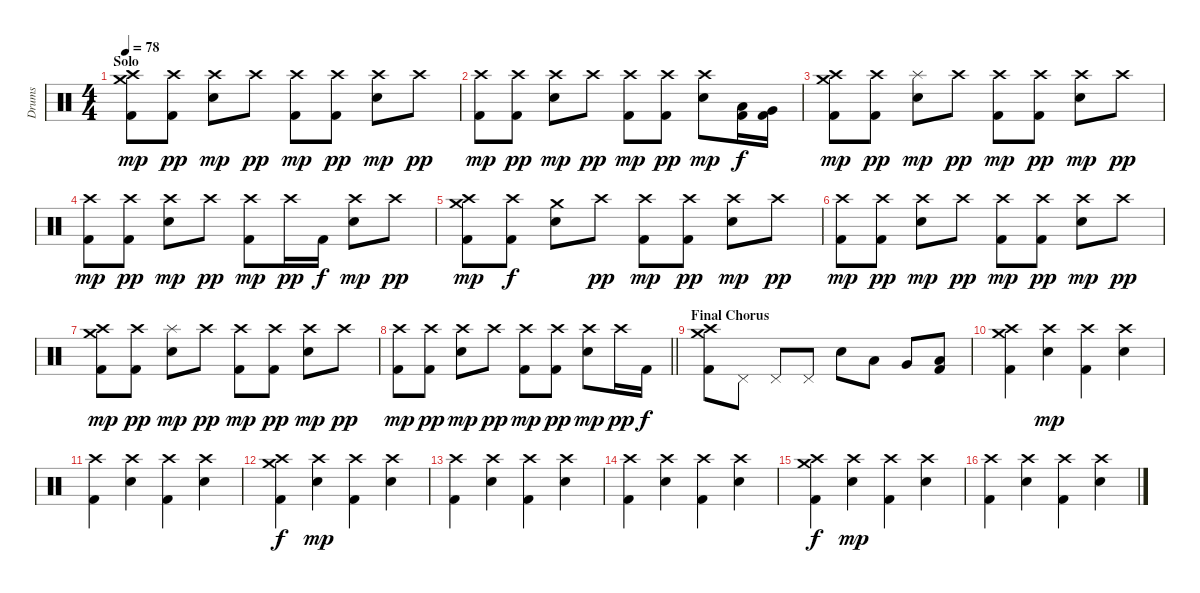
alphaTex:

\track ("Drums" "Drums") {instrument percussion}
\staff {score}
\articulation defaults
\ts (4 4)
\section ("" "Solo")
\tempo 78
\clef neutral
\ks c
("Kick (hit) 2" "Crash high (hit)" "Crash medium (hit)").8{dy mp} ("Kick (hit) 2" "Crash high (hit)").8{dy pp} ("Snare (hit) 2" "Crash high (hit)").8{dy mp} "Crash high (hit)".8{dy pp} ("Kick (hit) 2" "Crash high (hit)").8{dy mp} ("Kick (hit) 2" "Crash high (hit)").8{dy pp} ("Snare (hit) 2" "Crash high (hit)").8{dy mp} "Crash high (hit)".8{dy pp} |
("Kick (hit) 2" "Crash high (hit)").8{dy mp} ("Kick (hit) 2" "Crash high (hit)").8{dy pp} ("Snare (hit) 2" "Crash high (hit)").8{dy mp} "Crash high (hit)".8{dy pp} ("Kick (hit) 2" "Crash high (hit)").8{dy mp} ("Kick (hit) 2" "Crash high (hit)").8{dy pp} ("Snare (hit) 2" "Crash high (hit)").8{dy mp} ("Kick (hit) 2" "Low Tom (hit)").16{dy f} ("Kick (hit) 2" "Very Low Tom (hit)").16 |
("Kick (hit) 2" "Crash high (hit)" "Crash medium (hit)").8{dy mp} ("Kick (hit) 2" "Crash high (hit)").8{dy pp} ("Snare (hit) 2" "Splash (hit)").8{dy mp} "Crash high (hit)".8{dy pp} ("Kick (hit) 2" "Crash high (hit)").8{dy mp} ("Kick (hit) 2" "Crash high (hit)").8{dy pp} ("Snare (hit) 2" "Crash high (hit)").8{dy mp} "Crash high (hit)".8{dy pp} |
("Kick (hit) 2" "Crash high (hit)").8{dy mp} ("Kick (hit) 2" "Crash high (hit)").8{dy pp} ("Snare (hit) 2" "Crash high (hit)").8{dy mp} "Crash high (hit)".8{dy pp} ("Kick (hit) 2" "Crash high (hit)").8{dy mp} "Crash high (hit)".16{dy pp} "Kick (hit) 2".16{dy f} ("Snare (hit) 2" "Crash high (hit)").8{dy mp} "Crash high (hit)".8{dy pp} |
("Kick (hit) 2" "Crash high (hit)" "Crash medium (hit)").8{dy mp} ("Kick (hit) 2" "Crash high (hit)").8{dy f} ("Snare (hit) 2" "Crash medium (hit)").8 "Crash high (hit)".8{dy pp} ("Kick (hit) 2" "Crash high (hit)").8{dy mp} ("Kick (hit) 2" "Crash high (hit)").8{dy pp} ("Snare (hit) 2" "Crash high (hit)").8{dy mp} "Crash high (hit)".8{dy pp} |
("Kick (hit) 2" "Crash high (hit)").8{dy mp} ("Kick (hit) 2" "Crash high (hit)").8{dy pp} ("Snare (hit) 2" "Crash high (hit)").8{dy mp} "Crash high (hit)".8{dy pp} ("Kick (hit) 2" "Crash high (hit)").8{dy mp} ("Kick (hit) 2" "Crash high (hit)").8{dy pp} ("Snare (hit) 2" "Crash high (hit)").8{dy mp} "Crash high (hit)".8{dy pp} |
("Kick (hit) 2" "Crash high (hit)" "Crash medium (hit)").8{dy mp} ("Kick (hit) 2" "Crash high (hit)").8{dy pp} ("Snare (hit) 2" "Splash (hit)").8{dy mp} "Crash high (hit)".8{dy pp} ("Kick (hit) 2" "Crash high (hit)").8{dy mp} ("Kick (hit) 2" "Crash high (hit)").8{dy pp} ("Snare (hit) 2" "Crash high (hit)").8{dy mp} "Crash high (hit)".8{dy pp} |
\barLineRight lightlight
("Kick (hit) 2" "Crash high (hit)").8{dy mp} ("Kick (hit) 2" "Crash high (hit)").8{dy pp} ("Snare (hit) 2" "Crash high (hit)").8{dy mp} "Crash high (hit)".8{dy pp} ("Kick (hit) 2" "Crash high (hit)").8{dy mp} ("Kick (hit) 2" "Crash high (hit)").8{dy pp} ("Snare (hit) 2" "Crash high (hit)").8{dy mp} "Crash high (hit)".16{dy pp} "Kick (hit) 2".16{dy f} |
\section ("" "Final Chorus")
("Kick (hit) 2" "Crash medium (hit)" "Crash high (hit)").8 "Pedal Hi-Hat (hit)".8 "Pedal Hi-Hat (hit)".8 "Pedal Hi-Hat (hit)".8 "Snare (hit) 2".8 "Low Tom (hit)".8 "Very Low Tom (hit)".8 ("Kick (hit) 2" "Low Floor Tom (hit)").8 |
("Kick (hit) 2" "Crash high (hit)" "Crash medium (hit)").4 ("Snare (hit) 2" "Crash high (hit)").4{dy mp} ("Kick (hit) 2" "Crash high (hit)").4 ("Snare (hit) 2" "Crash high (hit)").4 |
("Kick (hit) 2" "Crash high (hit)").4 ("Snare (hit) 2" "Crash high (hit)").4 ("Kick (hit) 2" "Crash high (hit)").4 ("Snare (hit) 2" "Crash high (hit)").4 |
("Kick (hit) 2" "Crash high (hit)" "Crash medium (hit)").4{dy f} ("Snare (hit) 2" "Crash high (hit)").4{dy mp} ("Kick (hit) 2" "Crash high (hit)").4 ("Snare (hit) 2" "Crash high (hit)").4 |
("Kick (hit) 2" "Crash high (hit)").4 ("Snare (hit) 2" "Crash high (hit)").4 ("Kick (hit) 2" "Crash high (hit)").4 ("Snare (hit) 2" "Crash high (hit)").4 |
("Kick (hit) 2" "Crash high (hit)").4 ("Snare (hit) 2" "Crash high (hit)").4 ("Kick (hit) 2" "Crash high (hit)").4 ("Snare (hit) 2" "Crash high (hit)").4 |
("Kick (hit) 2" "Crash high (hit)" "Crash medium (hit)").4{dy f} ("Snare (hit) 2" "Crash high (hit)").4{dy mp} ("Kick (hit) 2" "Crash high (hit)").4 ("Snare (hit) 2" "Crash high (hit)").4 |
("Kick (hit) 2" "Crash high (hit)").4 ("Snare (hit) 2" "Crash high (hit)").4 ("Kick (hit) 2" "Crash high (hit)").4 ("Snare (hit) 2" "Crash high (hit)").4
